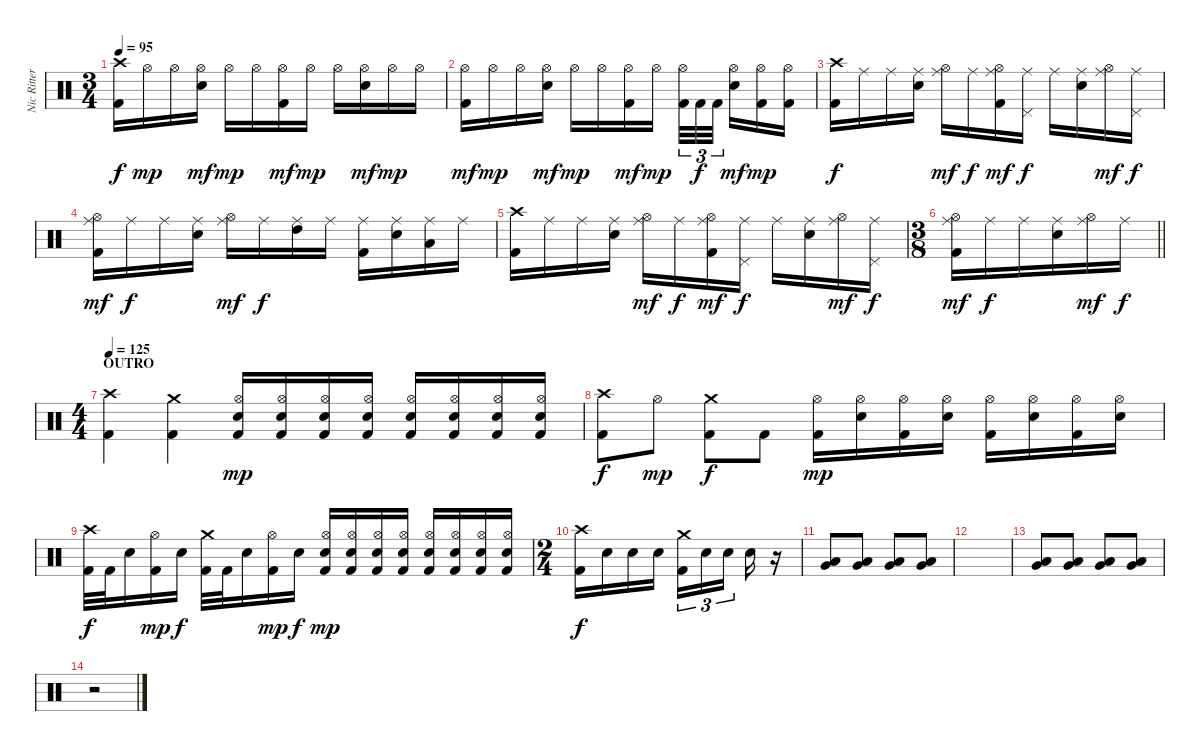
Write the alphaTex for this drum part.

\track ("Nic Ritter" "Nic Ritter") {instrument percussion}
\staff {score}
\articulation defaults
\ts (3 4)
\tempo 95
\clef neutral
\ks c
("Crash high (hit)" "Kick (hit) 2").16{dy f} "Hi-Hat (open)".16{dy mp} "Hi-Hat (open)".16 ("Hi-Hat (open)" "Electric Snare (hit)").16{dy mf} "Hi-Hat (open)".16{dy mp} "Hi-Hat (open)".16 ("Hi-Hat (open)" "Kick (hit) 2").16{dy mf} "Hi-Hat (open)".16{dy mp} "Hi-Hat (open)".16 ("Hi-Hat (open)" "Electric Snare (hit)").16{dy mf} "Hi-Hat (open)".16{dy mp} "Hi-Hat (open)".16 |
("Hi-Hat (open)" "Kick (hit) 2").16{dy mf} "Hi-Hat (open)".16{dy mp} "Hi-Hat (open)".16 ("Hi-Hat (open)" "Electric Snare (hit)").16{dy mf} "Hi-Hat (open)".16{dy mp} "Hi-Hat (open)".16 ("Hi-Hat (open)" "Kick (hit) 2").16{dy mf} "Hi-Hat (open)".16{dy mp} ("Hi-Hat (open)" "Kick (hit) 2").32{tu (3 2)} "Kick (hit) 2".32{tu (3 2) dy f} "Kick (hit) 2".32{tu (3 2) beam splitsecondary} ("Hi-Hat (open)" "Electric Snare (hit)").16{dy mf} ("Hi-Hat (open)" "Kick (hit) 2").16{dy mp} ("Hi-Hat (open)" "Kick (hit) 2").16 |
("Crash high (hit)" "Kick (hit) 2").16{dy f} "Ride (middle)".16 "Ride (middle)".16 ("Ride (middle)" "Electric Snare (hit)").16 ("Hi-Hat (open)" "Ride (middle)").16{dy mf} "Ride (middle)".16{dy f} ("Hi-Hat (open)" "Ride (middle)" "Kick (hit) 2").16{dy mf} ("Pedal Hi-Hat (hit)" "Ride (middle)").16{dy f} "Ride (middle)".16 ("Ride (middle)" "Electric Snare (hit)").16 ("Hi-Hat (open)" "Ride (middle)").16{dy mf} ("Pedal Hi-Hat (hit)" "Ride (middle)").16{dy f} |
("Hi-Hat (open)" "Ride (middle)" "Kick (hit) 2").16{dy mf} "Ride (middle)".16{dy f} "Ride (middle)".16 ("Ride (middle)" "Electric Snare (hit)").16 ("Hi-Hat (open)" "Ride (middle)").16{dy mf} "Ride (middle)".16{dy f} ("High Tom (hit)" "Ride (middle)").16 "Ride (middle)".16 ("Ride (middle)" "Kick (hit) 2").16 ("Ride (middle)" "Electric Snare (hit)").16 ("Low Tom (hit)" "Ride (middle)").16 "Ride (middle)".16 |
("Crash high (hit)" "Kick (hit) 2").16 "Ride (middle)".16 "Ride (middle)".16 ("Ride (middle)" "Electric Snare (hit)").16 ("Hi-Hat (open)" "Ride (middle)").16{dy mf} "Ride (middle)".16{dy f} ("Hi-Hat (open)" "Ride (middle)" "Kick (hit) 2").16{dy mf} ("Pedal Hi-Hat (hit)" "Ride (middle)").16{dy f} "Ride (middle)".16 ("Ride (middle)" "Electric Snare (hit)").16 ("Hi-Hat (open)" "Ride (middle)").16{dy mf} ("Pedal Hi-Hat (hit)" "Ride (middle)").16{dy f} |
\ts (3 8)
\barLineRight lightlight
("Hi-Hat (open)" "Ride (middle)" "Kick (hit) 2").16{dy mf} "Ride (middle)".16{dy f} "Ride (middle)".16 ("Ride (middle)" "Electric Snare (hit)").16 ("Hi-Hat (open)" "Ride (middle)").16{dy mf} "Ride (middle)".16{dy f} |
\ts (4 4)
\section ("" "OUTRO")
\tempo 125
("Crash high (hit)" "Kick (hit) 2").4 ("Crash medium (hit)" "Kick (hit) 2").4 ("Hi-Hat (open)" "Electric Snare (hit)" "Kick (hit) 2").16{dy mp} ("Hi-Hat (open)" "Electric Snare (hit)" "Kick (hit) 2").16 ("Hi-Hat (open)" "Electric Snare (hit)" "Kick (hit) 2").16 ("Hi-Hat (open)" "Electric Snare (hit)" "Kick (hit) 2").16 ("Hi-Hat (open)" "Electric Snare (hit)" "Kick (hit) 2").16 ("Hi-Hat (open)" "Electric Snare (hit)" "Kick (hit) 2").16 ("Hi-Hat (open)" "Electric Snare (hit)" "Kick (hit) 2").16 ("Hi-Hat (open)" "Electric Snare (hit)" "Kick (hit) 2").16 |
("Crash high (hit)" "Kick (hit) 2").8{dy f} "Hi-Hat (open)".8{dy mp} ("Crash medium (hit)" "Kick (hit) 2").8{dy f} "Kick (hit) 2".8 ("Hi-Hat (open)" "Kick (hit) 2").16{dy mp} ("Hi-Hat (open)" "Electric Snare (hit)").16 ("Hi-Hat (open)" "Kick (hit) 2").16 ("Hi-Hat (open)" "Electric Snare (hit)").16 ("Hi-Hat (open)" "Kick (hit) 2").16 ("Hi-Hat (open)" "Electric Snare (hit)").16 ("Hi-Hat (open)" "Kick (hit) 2").16 ("Hi-Hat (open)" "Electric Snare (hit)").16 |
("Crash high (hit)" "Kick (hit) 2").32{dy f} "Kick (hit) 2".32 "Electric Snare (hit)".16 ("Hi-Hat (open)" "Kick (hit) 2").16{dy mp} "Electric Snare (hit)".16{dy f} ("Crash medium (hit)" "Kick (hit) 2").32 "Kick (hit) 2".32 "Electric Snare (hit)".16 ("Hi-Hat (open)" "Kick (hit) 2").16{dy mp} "Electric Snare (hit)".16{dy f} ("Hi-Hat (open)" "Electric Snare (hit)" "Kick (hit) 2").16{dy mp} ("Hi-Hat (open)" "Electric Snare (hit)" "Kick (hit) 2").16 ("Hi-Hat (open)" "Electric Snare (hit)" "Kick (hit) 2").16 ("Hi-Hat (open)" "Electric Snare (hit)" "Kick (hit) 2").16 ("Hi-Hat (open)" "Electric Snare (hit)" "Kick (hit) 2").16 ("Hi-Hat (open)" "Electric Snare (hit)" "Kick (hit) 2").16 ("Hi-Hat (open)" "Electric Snare (hit)" "Kick (hit) 2").16 ("Hi-Hat (open)" "Electric Snare (hit)" "Kick (hit) 2").16 |
\ts (2 4)
("Crash high (hit)" "Kick (hit) 2").16{dy f} "Electric Snare (hit)".16 "Electric Snare (hit)".16 "Electric Snare (hit)".16 ("Crash medium (hit)" "Kick (hit) 2").16{tu (3 2)} "Electric Snare (hit)".16{tu (3 2)} "Electric Snare (hit)".16{tu (3 2) beam splitsecondary} "Electric Snare (hit)".16 r.16 |
("Low Tom (hit)" "Very Low Tom (hit)").8 ("Low Tom (hit)" "Very Low Tom (hit)").8 ("Low Tom (hit)" "Very Low Tom (hit)").8 ("Low Tom (hit)" "Very Low Tom (hit)").8 |
|
("Low Tom (hit)" "Very Low Tom (hit)").8 ("Low Tom (hit)" "Very Low Tom (hit)").8 ("Low Tom (hit)" "Very Low Tom (hit)").8 ("Low Tom (hit)" "Very Low Tom (hit)").8 |
r.2
